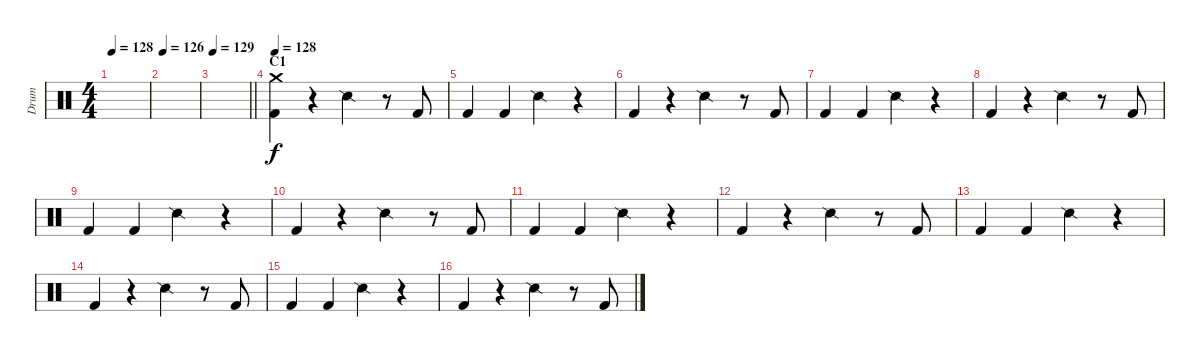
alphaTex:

\track ("Drum" "Drum") {instrument percussion}
\staff {score}
\articulation defaults
\ts (4 4)
\tempo 128
\clef neutral
\ks c
|
\tempo 126
|
\tempo 129
\barLineRight lightlight
|
\section ("" "C1")
\tempo 128
("Kick (hit) 2" "Crash medium (hit)").4 r.4 "Snare (side stick) 2".4 r.8 "Kick (hit) 2".8 |
"Kick (hit) 2".4 "Kick (hit) 2".4 "Snare (side stick) 2".4 r.4 |
"Kick (hit) 2".4 r.4 "Snare (side stick) 2".4 r.8 "Kick (hit) 2".8 |
"Kick (hit) 2".4 "Kick (hit) 2".4 "Snare (side stick) 2".4 r.4 |
"Kick (hit) 2".4 r.4 "Snare (side stick) 2".4 r.8 "Kick (hit) 2".8 |
"Kick (hit) 2".4 "Kick (hit) 2".4 "Snare (side stick) 2".4 r.4 |
"Kick (hit) 2".4 r.4 "Snare (side stick) 2".4 r.8 "Kick (hit) 2".8 |
"Kick (hit) 2".4 "Kick (hit) 2".4 "Snare (side stick) 2".4 r.4 |
"Kick (hit) 2".4 r.4 "Snare (side stick) 2".4 r.8 "Kick (hit) 2".8 |
"Kick (hit) 2".4 "Kick (hit) 2".4 "Snare (side stick) 2".4 r.4 |
"Kick (hit) 2".4 r.4 "Snare (side stick) 2".4 r.8 "Kick (hit) 2".8 |
"Kick (hit) 2".4 "Kick (hit) 2".4 "Snare (side stick) 2".4 r.4 |
"Kick (hit) 2".4 r.4 "Snare (side stick) 2".4 r.8 "Kick (hit) 2".8
